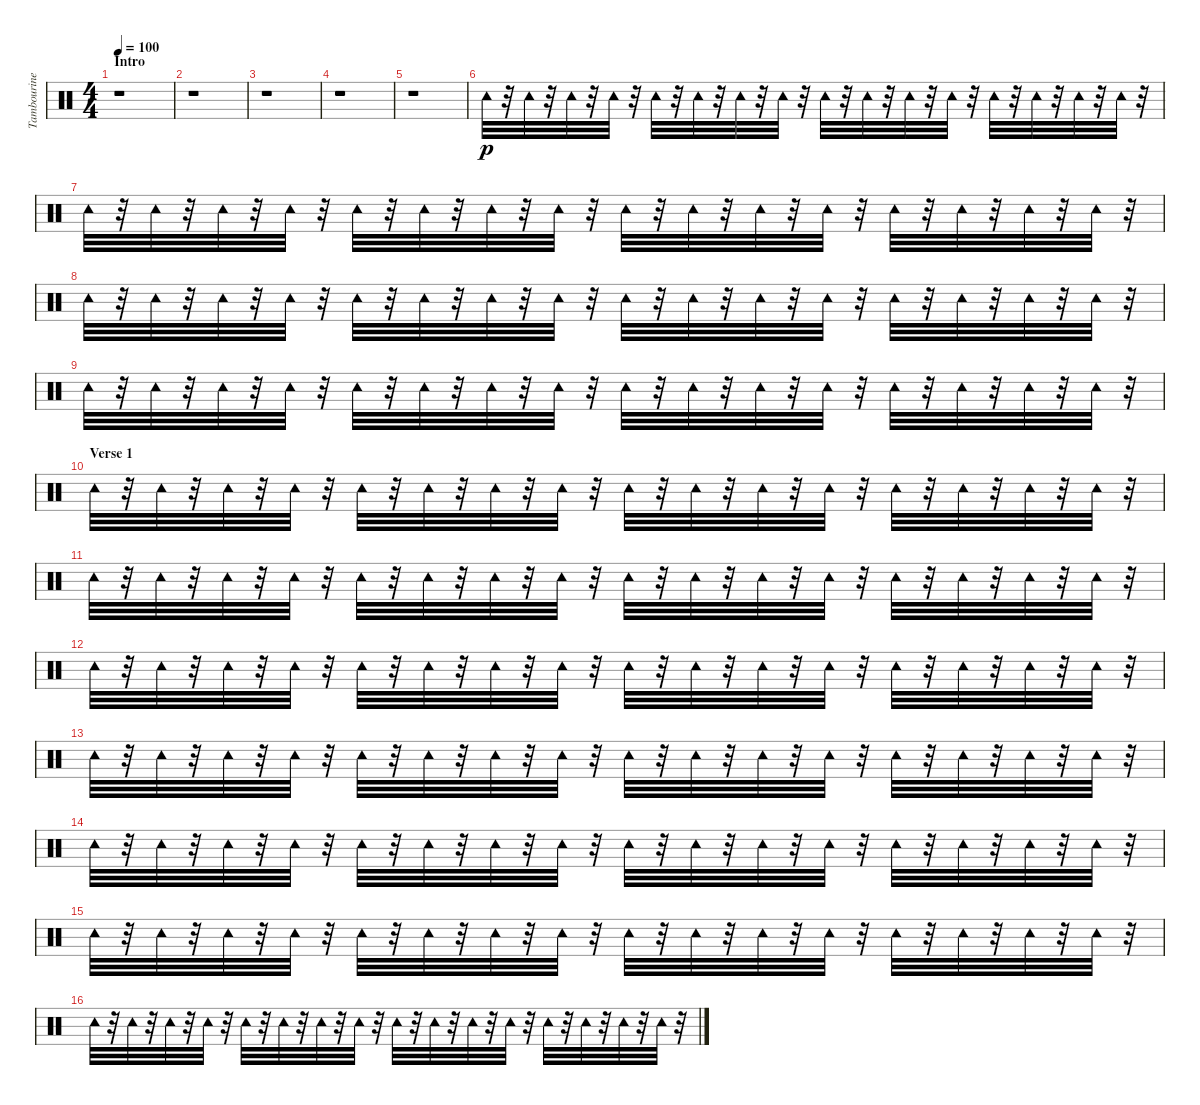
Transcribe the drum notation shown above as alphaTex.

\track ("Tambourine" "Tambourine") {instrument percussion}
\staff {score}
\articulation defaults
\ts (4 4)
\section ("" "Intro")
\tempo 100
\clef neutral
\ks c
r.1{dy p} |
r.1 |
r.1 |
r.1 |
r.1 |
"Tambourine (hit)".32 r.32 "Tambourine (hit)".32 r.32 "Tambourine (hit)".32 r.32 "Tambourine (hit)".32 r.32 "Tambourine (hit)".32 r.32 "Tambourine (hit)".32 r.32 "Tambourine (hit)".32 r.32 "Tambourine (hit)".32 r.32 "Tambourine (hit)".32 r.32 "Tambourine (hit)".32 r.32 "Tambourine (hit)".32 r.32 "Tambourine (hit)".32 r.32 "Tambourine (hit)".32 r.32 "Tambourine (hit)".32 r.32 "Tambourine (hit)".32 r.32 "Tambourine (hit)".32 r.32 |
"Tambourine (hit)".32 r.32 "Tambourine (hit)".32 r.32 "Tambourine (hit)".32 r.32 "Tambourine (hit)".32 r.32 "Tambourine (hit)".32 r.32 "Tambourine (hit)".32 r.32 "Tambourine (hit)".32 r.32 "Tambourine (hit)".32 r.32 "Tambourine (hit)".32 r.32 "Tambourine (hit)".32 r.32 "Tambourine (hit)".32 r.32 "Tambourine (hit)".32 r.32 "Tambourine (hit)".32 r.32 "Tambourine (hit)".32 r.32 "Tambourine (hit)".32 r.32 "Tambourine (hit)".32 r.32 |
"Tambourine (hit)".32 r.32 "Tambourine (hit)".32 r.32 "Tambourine (hit)".32 r.32 "Tambourine (hit)".32 r.32 "Tambourine (hit)".32 r.32 "Tambourine (hit)".32 r.32 "Tambourine (hit)".32 r.32 "Tambourine (hit)".32 r.32 "Tambourine (hit)".32 r.32 "Tambourine (hit)".32 r.32 "Tambourine (hit)".32 r.32 "Tambourine (hit)".32 r.32 "Tambourine (hit)".32 r.32 "Tambourine (hit)".32 r.32 "Tambourine (hit)".32 r.32 "Tambourine (hit)".32 r.32 |
"Tambourine (hit)".32 r.32 "Tambourine (hit)".32 r.32 "Tambourine (hit)".32 r.32 "Tambourine (hit)".32 r.32 "Tambourine (hit)".32 r.32 "Tambourine (hit)".32 r.32 "Tambourine (hit)".32 r.32 "Tambourine (hit)".32 r.32 "Tambourine (hit)".32 r.32 "Tambourine (hit)".32 r.32 "Tambourine (hit)".32 r.32 "Tambourine (hit)".32 r.32 "Tambourine (hit)".32 r.32 "Tambourine (hit)".32 r.32 "Tambourine (hit)".32 r.32 "Tambourine (hit)".32 r.32 |
\section ("" "Verse 1")
"Tambourine (hit)".32 r.32 "Tambourine (hit)".32 r.32 "Tambourine (hit)".32 r.32 "Tambourine (hit)".32 r.32 "Tambourine (hit)".32 r.32 "Tambourine (hit)".32 r.32 "Tambourine (hit)".32 r.32 "Tambourine (hit)".32 r.32 "Tambourine (hit)".32 r.32 "Tambourine (hit)".32 r.32 "Tambourine (hit)".32 r.32 "Tambourine (hit)".32 r.32 "Tambourine (hit)".32 r.32 "Tambourine (hit)".32 r.32 "Tambourine (hit)".32 r.32 "Tambourine (hit)".32 r.32 |
"Tambourine (hit)".32 r.32 "Tambourine (hit)".32 r.32 "Tambourine (hit)".32 r.32 "Tambourine (hit)".32 r.32 "Tambourine (hit)".32 r.32 "Tambourine (hit)".32 r.32 "Tambourine (hit)".32 r.32 "Tambourine (hit)".32 r.32 "Tambourine (hit)".32 r.32 "Tambourine (hit)".32 r.32 "Tambourine (hit)".32 r.32 "Tambourine (hit)".32 r.32 "Tambourine (hit)".32 r.32 "Tambourine (hit)".32 r.32 "Tambourine (hit)".32 r.32 "Tambourine (hit)".32 r.32 |
"Tambourine (hit)".32 r.32 "Tambourine (hit)".32 r.32 "Tambourine (hit)".32 r.32 "Tambourine (hit)".32 r.32 "Tambourine (hit)".32 r.32 "Tambourine (hit)".32 r.32 "Tambourine (hit)".32 r.32 "Tambourine (hit)".32 r.32 "Tambourine (hit)".32 r.32 "Tambourine (hit)".32 r.32 "Tambourine (hit)".32 r.32 "Tambourine (hit)".32 r.32 "Tambourine (hit)".32 r.32 "Tambourine (hit)".32 r.32 "Tambourine (hit)".32 r.32 "Tambourine (hit)".32 r.32 |
"Tambourine (hit)".32 r.32 "Tambourine (hit)".32 r.32 "Tambourine (hit)".32 r.32 "Tambourine (hit)".32 r.32 "Tambourine (hit)".32 r.32 "Tambourine (hit)".32 r.32 "Tambourine (hit)".32 r.32 "Tambourine (hit)".32 r.32 "Tambourine (hit)".32 r.32 "Tambourine (hit)".32 r.32 "Tambourine (hit)".32 r.32 "Tambourine (hit)".32 r.32 "Tambourine (hit)".32 r.32 "Tambourine (hit)".32 r.32 "Tambourine (hit)".32 r.32 "Tambourine (hit)".32 r.32 |
"Tambourine (hit)".32 r.32 "Tambourine (hit)".32 r.32 "Tambourine (hit)".32 r.32 "Tambourine (hit)".32 r.32 "Tambourine (hit)".32 r.32 "Tambourine (hit)".32 r.32 "Tambourine (hit)".32 r.32 "Tambourine (hit)".32 r.32 "Tambourine (hit)".32 r.32 "Tambourine (hit)".32 r.32 "Tambourine (hit)".32 r.32 "Tambourine (hit)".32 r.32 "Tambourine (hit)".32 r.32 "Tambourine (hit)".32 r.32 "Tambourine (hit)".32 r.32 "Tambourine (hit)".32 r.32 |
"Tambourine (hit)".32 r.32 "Tambourine (hit)".32 r.32 "Tambourine (hit)".32 r.32 "Tambourine (hit)".32 r.32 "Tambourine (hit)".32 r.32 "Tambourine (hit)".32 r.32 "Tambourine (hit)".32 r.32 "Tambourine (hit)".32 r.32 "Tambourine (hit)".32 r.32 "Tambourine (hit)".32 r.32 "Tambourine (hit)".32 r.32 "Tambourine (hit)".32 r.32 "Tambourine (hit)".32 r.32 "Tambourine (hit)".32 r.32 "Tambourine (hit)".32 r.32 "Tambourine (hit)".32 r.32 |
"Tambourine (hit)".32 r.32 "Tambourine (hit)".32 r.32 "Tambourine (hit)".32 r.32 "Tambourine (hit)".32 r.32 "Tambourine (hit)".32 r.32 "Tambourine (hit)".32 r.32 "Tambourine (hit)".32 r.32 "Tambourine (hit)".32 r.32 "Tambourine (hit)".32 r.32 "Tambourine (hit)".32 r.32 "Tambourine (hit)".32 r.32 "Tambourine (hit)".32 r.32 "Tambourine (hit)".32 r.32 "Tambourine (hit)".32 r.32 "Tambourine (hit)".32 r.32 "Tambourine (hit)".32 r.32
